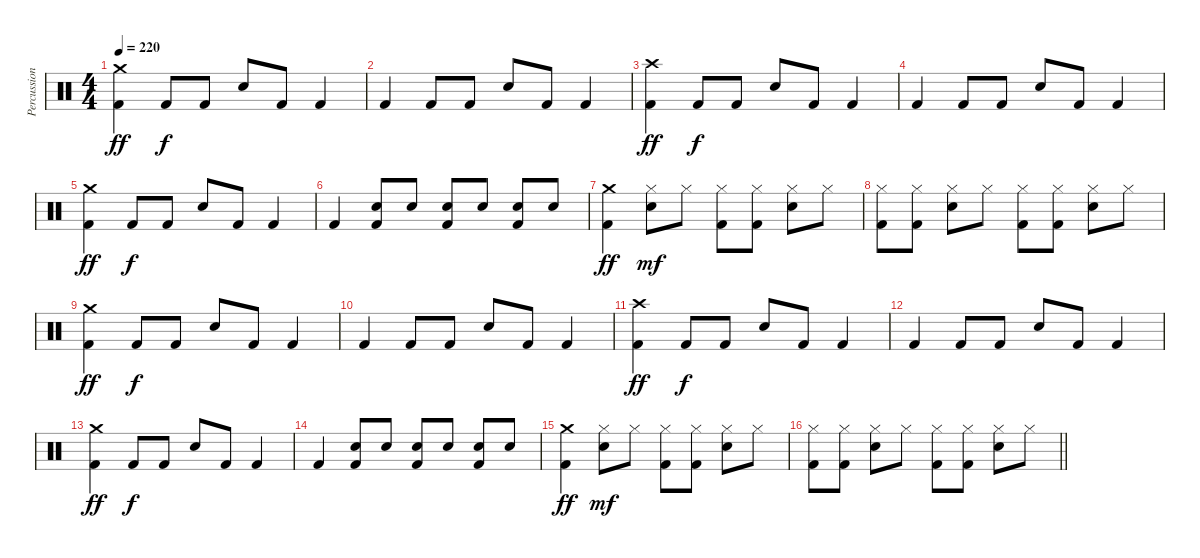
\track ("Percussion" "Percussion") {instrument percussion}
\staff {score}
\articulation defaults
\ts (4 4)
\tempo 220
\clef neutral
\ks c
("Crash medium (hit)" "Kick (hit) 2").4{dy ff} "Kick (hit) 2".8{dy f} "Kick (hit) 2".8 "Electric Snare (hit)".8 "Kick (hit) 2".8 "Kick (hit) 2".4 |
"Kick (hit) 2".4 "Kick (hit) 2".8 "Kick (hit) 2".8 "Electric Snare (hit)".8 "Kick (hit) 2".8 "Kick (hit) 2".4 |
("Crash high (hit)" "Kick (hit) 2").4{dy ff} "Kick (hit) 2".8{dy f} "Kick (hit) 2".8 "Electric Snare (hit)".8 "Kick (hit) 2".8 "Kick (hit) 2".4 |
"Kick (hit) 2".4 "Kick (hit) 2".8 "Kick (hit) 2".8 "Electric Snare (hit)".8 "Kick (hit) 2".8 "Kick (hit) 2".4 |
("Crash medium (hit)" "Kick (hit) 2").4{dy ff} "Kick (hit) 2".8{dy f} "Kick (hit) 2".8 "Electric Snare (hit)".8 "Kick (hit) 2".8 "Kick (hit) 2".4 |
"Kick (hit) 2".4 ("Electric Snare (hit)" "Kick (hit) 2").8 "Electric Snare (hit)".8 ("Electric Snare (hit)" "Kick (hit) 2").8 "Electric Snare (hit)".8 ("Electric Snare (hit)" "Kick (hit) 2").8 "Electric Snare (hit)".8 |
("Crash medium (hit)" "Kick (hit) 2").4{dy ff} ("Hi-Hat (closed)" "Electric Snare (hit)").8{dy mf} "Hi-Hat (closed)".8 ("Hi-Hat (closed)" "Kick (hit) 2").8 ("Hi-Hat (closed)" "Kick (hit) 2").8 ("Hi-Hat (closed)" "Electric Snare (hit)").8 "Hi-Hat (closed)".8 |
("Hi-Hat (closed)" "Kick (hit) 2").8 ("Hi-Hat (closed)" "Kick (hit) 2").8 ("Hi-Hat (closed)" "Electric Snare (hit)").8 "Hi-Hat (closed)".8 ("Hi-Hat (closed)" "Kick (hit) 2").8 ("Hi-Hat (closed)" "Kick (hit) 2").8 ("Hi-Hat (closed)" "Electric Snare (hit)").8 "Hi-Hat (closed)".8 |
("Crash medium (hit)" "Kick (hit) 2").4{dy ff} "Kick (hit) 2".8{dy f} "Kick (hit) 2".8 "Electric Snare (hit)".8 "Kick (hit) 2".8 "Kick (hit) 2".4 |
"Kick (hit) 2".4 "Kick (hit) 2".8 "Kick (hit) 2".8 "Electric Snare (hit)".8 "Kick (hit) 2".8 "Kick (hit) 2".4 |
("Crash high (hit)" "Kick (hit) 2").4{dy ff} "Kick (hit) 2".8{dy f} "Kick (hit) 2".8 "Electric Snare (hit)".8 "Kick (hit) 2".8 "Kick (hit) 2".4 |
"Kick (hit) 2".4 "Kick (hit) 2".8 "Kick (hit) 2".8 "Electric Snare (hit)".8 "Kick (hit) 2".8 "Kick (hit) 2".4 |
("Crash medium (hit)" "Kick (hit) 2").4{dy ff} "Kick (hit) 2".8{dy f} "Kick (hit) 2".8 "Electric Snare (hit)".8 "Kick (hit) 2".8 "Kick (hit) 2".4 |
"Kick (hit) 2".4 ("Electric Snare (hit)" "Kick (hit) 2").8 "Electric Snare (hit)".8 ("Electric Snare (hit)" "Kick (hit) 2").8 "Electric Snare (hit)".8 ("Electric Snare (hit)" "Kick (hit) 2").8 "Electric Snare (hit)".8 |
("Crash medium (hit)" "Kick (hit) 2").4{dy ff} ("Hi-Hat (closed)" "Electric Snare (hit)").8{dy mf} "Hi-Hat (closed)".8 ("Hi-Hat (closed)" "Kick (hit) 2").8 ("Hi-Hat (closed)" "Kick (hit) 2").8 ("Hi-Hat (closed)" "Electric Snare (hit)").8 "Hi-Hat (closed)".8 |
\barLineRight lightlight
("Hi-Hat (closed)" "Kick (hit) 2").8 ("Hi-Hat (closed)" "Kick (hit) 2").8 ("Hi-Hat (closed)" "Electric Snare (hit)").8 "Hi-Hat (closed)".8 ("Hi-Hat (closed)" "Kick (hit) 2").8 ("Hi-Hat (closed)" "Kick (hit) 2").8 ("Hi-Hat (closed)" "Electric Snare (hit)").8 "Hi-Hat (closed)".8
